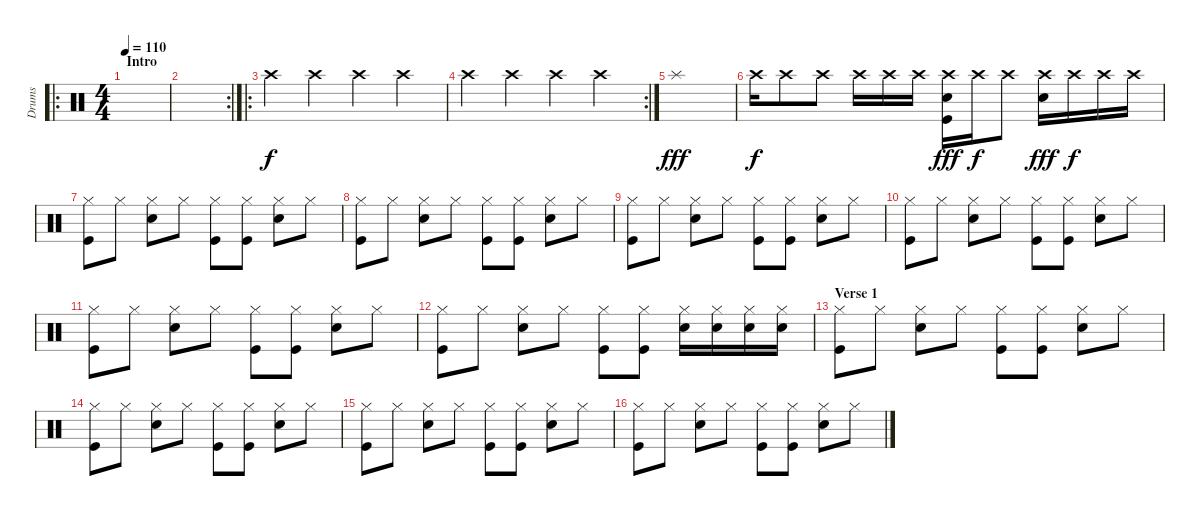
\track ("Drums" "Drums") {instrument percussion}
\staff {score}
\articulation defaults
\ro
\ts (4 4)
\section ("" "Intro")
\tempo 110
\clef neutral
\ks c
|
\rc 2
|
\ro "Crash high (hit)".4 "Crash high (hit)".4 "Crash high (hit)".4 "Crash high (hit)".4
|
\rc 2 "Crash high (hit)".4 "Crash high (hit)".4 "Crash high (hit)".4 "Crash high (hit)".4
|
"Splash (hit)".1{dy fff} |
"Crash high (hit)".16{dy f} "Crash high (hit)".8 "Crash high (hit)".8 "Crash high (hit)".16 "Crash high (hit)".16 "Crash high (hit)".16 ("Crash high (hit)" "Electric Snare (hit)" "Kick (hit)").16{dy fff} "Crash high (hit)".16{dy f} "Crash high (hit)".8 ("Crash high (hit)" "Electric Snare (hit)").16{dy fff} "Crash high (hit)".16{dy f} "Crash high (hit)".16 "Crash high (hit)".16 |
("Hi-Hat (closed)" "Kick (hit)").8 "Hi-Hat (closed)".8 ("Hi-Hat (closed)" "Electric Snare (hit)").8 "Hi-Hat (closed)".8 ("Hi-Hat (closed)" "Kick (hit)").8 ("Hi-Hat (closed)" "Kick (hit)").8 ("Hi-Hat (closed)" "Electric Snare (hit)").8 "Hi-Hat (closed)".8 |
("Hi-Hat (closed)" "Kick (hit)").8 "Hi-Hat (closed)".8 ("Hi-Hat (closed)" "Electric Snare (hit)").8 "Hi-Hat (closed)".8 ("Hi-Hat (closed)" "Kick (hit)").8 ("Hi-Hat (closed)" "Kick (hit)").8 ("Hi-Hat (closed)" "Electric Snare (hit)").8 "Hi-Hat (closed)".8 |
("Hi-Hat (closed)" "Kick (hit)").8 "Hi-Hat (closed)".8 ("Hi-Hat (closed)" "Electric Snare (hit)").8 "Hi-Hat (closed)".8 ("Hi-Hat (closed)" "Kick (hit)").8 ("Hi-Hat (closed)" "Kick (hit)").8 ("Hi-Hat (closed)" "Electric Snare (hit)").8 "Hi-Hat (closed)".8 |
("Hi-Hat (closed)" "Kick (hit)").8 "Hi-Hat (closed)".8 ("Hi-Hat (closed)" "Electric Snare (hit)").8 "Hi-Hat (closed)".8 ("Hi-Hat (closed)" "Kick (hit)").8 ("Hi-Hat (closed)" "Kick (hit)").8 ("Hi-Hat (closed)" "Electric Snare (hit)").8 "Hi-Hat (closed)".8 |
("Hi-Hat (closed)" "Kick (hit)").8 "Hi-Hat (closed)".8 ("Hi-Hat (closed)" "Electric Snare (hit)").8 "Hi-Hat (closed)".8 ("Hi-Hat (closed)" "Kick (hit)").8 ("Hi-Hat (closed)" "Kick (hit)").8 ("Hi-Hat (closed)" "Electric Snare (hit)").8 "Hi-Hat (closed)".8 |
("Hi-Hat (closed)" "Kick (hit)").8 "Hi-Hat (closed)".8 ("Hi-Hat (closed)" "Electric Snare (hit)").8 "Hi-Hat (closed)".8 ("Hi-Hat (closed)" "Kick (hit)").8 ("Hi-Hat (closed)" "Kick (hit)").8 ("Hi-Hat (closed)" "Electric Snare (hit)").16 ("Hi-Hat (closed)" "Electric Snare (hit)").16 ("Hi-Hat (closed)" "Electric Snare (hit)").16 ("Hi-Hat (closed)" "Electric Snare (hit)").16 |
\section ("" "Verse 1")
("Hi-Hat (closed)" "Kick (hit)").8 "Hi-Hat (closed)".8 ("Hi-Hat (closed)" "Electric Snare (hit)").8 "Hi-Hat (closed)".8 ("Hi-Hat (closed)" "Kick (hit)").8 ("Hi-Hat (closed)" "Kick (hit)").8 ("Hi-Hat (closed)" "Electric Snare (hit)").8 "Hi-Hat (closed)".8 |
("Hi-Hat (closed)" "Kick (hit)").8 "Hi-Hat (closed)".8 ("Hi-Hat (closed)" "Electric Snare (hit)").8 "Hi-Hat (closed)".8 ("Hi-Hat (closed)" "Kick (hit)").8 ("Hi-Hat (closed)" "Kick (hit)").8 ("Hi-Hat (closed)" "Electric Snare (hit)").8 "Hi-Hat (closed)".8 |
("Hi-Hat (closed)" "Kick (hit)").8 "Hi-Hat (closed)".8 ("Hi-Hat (closed)" "Electric Snare (hit)").8 "Hi-Hat (closed)".8 ("Hi-Hat (closed)" "Kick (hit)").8 ("Hi-Hat (closed)" "Kick (hit)").8 ("Hi-Hat (closed)" "Electric Snare (hit)").8 "Hi-Hat (closed)".8 |
("Hi-Hat (closed)" "Kick (hit)").8 "Hi-Hat (closed)".8 ("Hi-Hat (closed)" "Electric Snare (hit)").8 "Hi-Hat (closed)".8 ("Hi-Hat (closed)" "Kick (hit)").8 ("Hi-Hat (closed)" "Kick (hit)").8 ("Hi-Hat (closed)" "Electric Snare (hit)").8 "Hi-Hat (closed)".8
